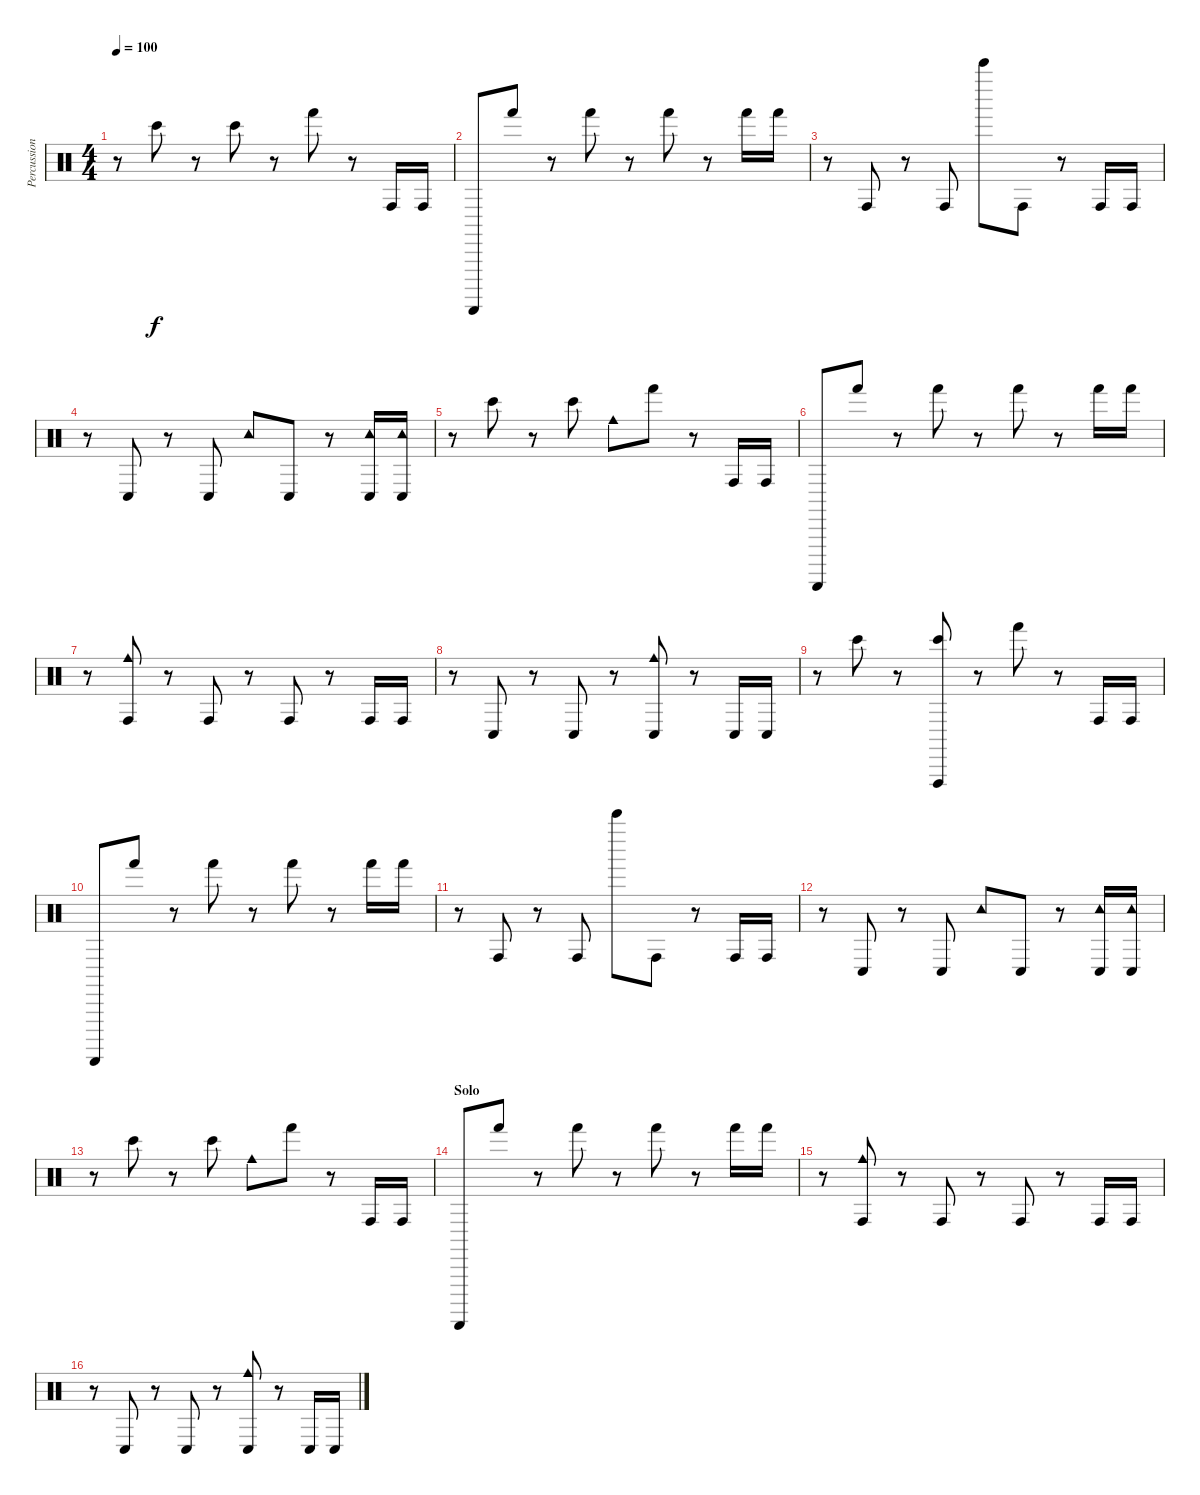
\track ("Percussion" "Percussion") {instrument percussion}
\staff {score}
\articulation defaults
\ts (4 4)
\tempo 100
\clef neutral
\ks c
r.8{dy f} "Bongo High (hit)".8 r.8 "Bongo High (hit)".8 r.8 "Hand (hit)".8 r.8 "Conga high (hit)".16 "Conga high (hit)".16 |
"Guiro (scrap-return)".8 "Hand (hit)".8 r.8 "Hand (hit)".8 r.8 "Hand (hit)".8 r.8 "Hand (hit)".16 "Hand (hit)".16 |
r.8 "Conga high (hit)".8 r.8 "Conga high (hit)".8 "Bell Tree (hit)".8 "Conga high (hit)".8 r.8 "Conga high (hit)".16 "Conga high (hit)".16 |
r.8 "Conga low (hit)".8 r.8 "Conga low (hit)".8 "Tambourine (hit)".8 "Conga low (hit)".8 r.8 ("Tambourine (hit)" "Conga low (hit)").16 ("Tambourine (hit)" "Conga low (hit)").16 |
r.8 "Bongo High (hit)".8 r.8 "Bongo High (hit)".8 "Cowbell medium (hit)".8 "Hand (hit)".8 r.8 "Conga high (hit)".16 "Conga high (hit)".16 |
"Guiro (scrap-return)".8 "Hand (hit)".8 r.8 "Hand (hit)".8 r.8 "Hand (hit)".8 r.8 "Hand (hit)".16 "Hand (hit)".16 |
r.8 ("Cowbell medium (hit)" "Conga high (hit)").8 r.8 "Conga high (hit)".8 r.8 "Conga high (hit)".8 r.8 "Conga high (hit)".16 "Conga high (hit)".16 |
r.8 "Conga low (hit)".8 r.8 "Conga low (hit)".8 r.8 ("Cowbell medium (hit)" "Conga low (hit)").8 r.8 "Conga low (hit)".16 "Conga low (hit)".16 |
r.8 "Bongo High (hit)".8 r.8 ("Bongo High (hit)" "Vibraslap (hit)").8 r.8 "Hand (hit)".8 r.8 "Conga high (hit)".16 "Conga high (hit)".16 |
"Guiro (scrap-return)".8 "Hand (hit)".8 r.8 "Hand (hit)".8 r.8 "Hand (hit)".8 r.8 "Hand (hit)".16 "Hand (hit)".16 |
r.8 "Conga high (hit)".8 r.8 "Conga high (hit)".8 "Bell Tree (hit)".8 "Conga high (hit)".8 r.8 "Conga high (hit)".16 "Conga high (hit)".16 |
r.8 "Conga low (hit)".8 r.8 "Conga low (hit)".8 "Tambourine (hit)".8 "Conga low (hit)".8 r.8 ("Tambourine (hit)" "Conga low (hit)").16 ("Tambourine (hit)" "Conga low (hit)").16 |
r.8 "Bongo High (hit)".8 r.8 "Bongo High (hit)".8 "Cowbell medium (hit)".8 "Hand (hit)".8 r.8 "Conga high (hit)".16 "Conga high (hit)".16 |
\section ("" "Solo")
"Guiro (scrap-return)".8 "Hand (hit)".8 r.8 "Hand (hit)".8 r.8 "Hand (hit)".8 r.8 "Hand (hit)".16 "Hand (hit)".16 |
r.8 ("Cowbell medium (hit)" "Conga high (hit)").8 r.8 "Conga high (hit)".8 r.8 "Conga high (hit)".8 r.8 "Conga high (hit)".16 "Conga high (hit)".16 |
r.8 "Conga low (hit)".8 r.8 "Conga low (hit)".8 r.8 ("Cowbell medium (hit)" "Conga low (hit)").8 r.8 "Conga low (hit)".16 "Conga low (hit)".16
